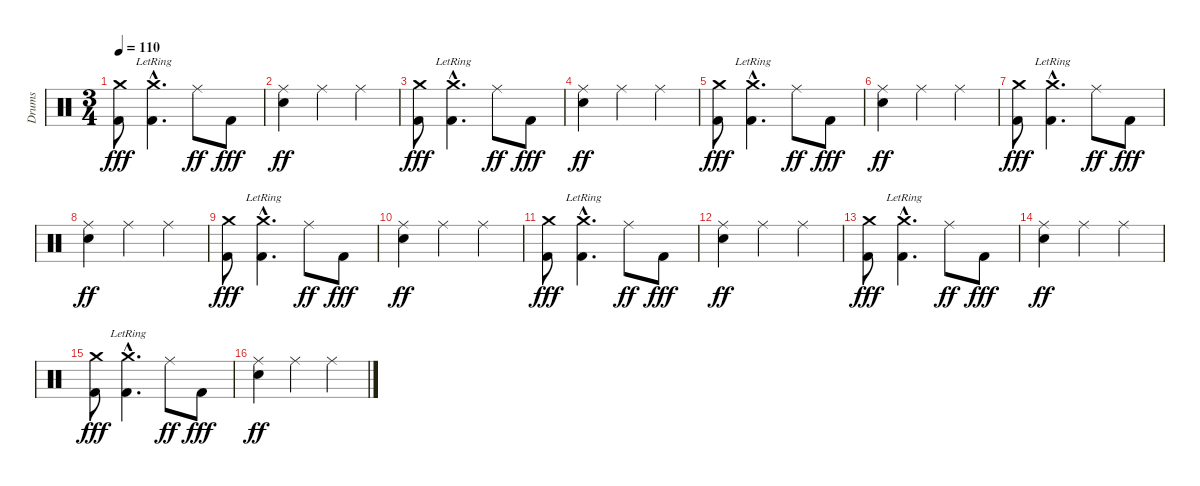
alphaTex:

\track ("Drums" "Drums") {instrument percussion}
\staff {score}
\articulation defaults
\ts (3 4)
\tempo 110
\clef neutral
\ks c
("Crash medium (hit)" "Kick (hit) 2").8{dy fff} ("Crash medium (hit)"{hac lr} "Kick (hit) 2"{hac}).4{d} "Ride (middle)".8{dy ff} "Kick (hit) 2".8{dy fff} |
("Ride (middle)" "Snare (hit) 2").4{dy ff} "Ride (middle)".4 "Ride (middle)".4 |
("Crash medium (hit)" "Kick (hit) 2").8{dy fff} ("Crash medium (hit)"{hac lr} "Kick (hit) 2"{hac}).4{d} "Ride (middle)".8{dy ff} "Kick (hit) 2".8{dy fff} |
("Ride (middle)" "Snare (hit) 2").4{dy ff} "Ride (middle)".4 "Ride (middle)".4 |
("Crash medium (hit)" "Kick (hit) 2").8{dy fff} ("Crash medium (hit)"{hac lr} "Kick (hit) 2"{hac}).4{d} "Ride (middle)".8{dy ff} "Kick (hit) 2".8{dy fff} |
("Ride (middle)" "Snare (hit) 2").4{dy ff} "Ride (middle)".4 "Ride (middle)".4 |
("Crash medium (hit)" "Kick (hit) 2").8{dy fff} ("Crash medium (hit)"{hac lr} "Kick (hit) 2"{hac}).4{d} "Ride (middle)".8{dy ff} "Kick (hit) 2".8{dy fff} |
("Ride (middle)" "Snare (hit) 2").4{dy ff} "Ride (middle)".4 "Ride (middle)".4 |
("Crash medium (hit)" "Kick (hit) 2").8{dy fff} ("Crash medium (hit)"{hac lr} "Kick (hit) 2"{hac}).4{d} "Ride (middle)".8{dy ff} "Kick (hit) 2".8{dy fff} |
("Ride (middle)" "Snare (hit) 2").4{dy ff} "Ride (middle)".4 "Ride (middle)".4 |
("Crash medium (hit)" "Kick (hit) 2").8{dy fff} ("Crash medium (hit)"{hac lr} "Kick (hit) 2"{hac}).4{d} "Ride (middle)".8{dy ff} "Kick (hit) 2".8{dy fff} |
("Ride (middle)" "Snare (hit) 2").4{dy ff} "Ride (middle)".4 "Ride (middle)".4 |
("Crash medium (hit)" "Kick (hit) 2").8{dy fff} ("Crash medium (hit)"{hac lr} "Kick (hit) 2"{hac}).4{d} "Ride (middle)".8{dy ff} "Kick (hit) 2".8{dy fff} |
("Ride (middle)" "Snare (hit) 2").4{dy ff} "Ride (middle)".4 "Ride (middle)".4 |
("Crash medium (hit)" "Kick (hit) 2").8{dy fff} ("Crash medium (hit)"{hac lr} "Kick (hit) 2"{hac}).4{d} "Ride (middle)".8{dy ff} "Kick (hit) 2".8{dy fff} |
("Ride (middle)" "Snare (hit) 2").4{dy ff} "Ride (middle)".4 "Ride (middle)".4
